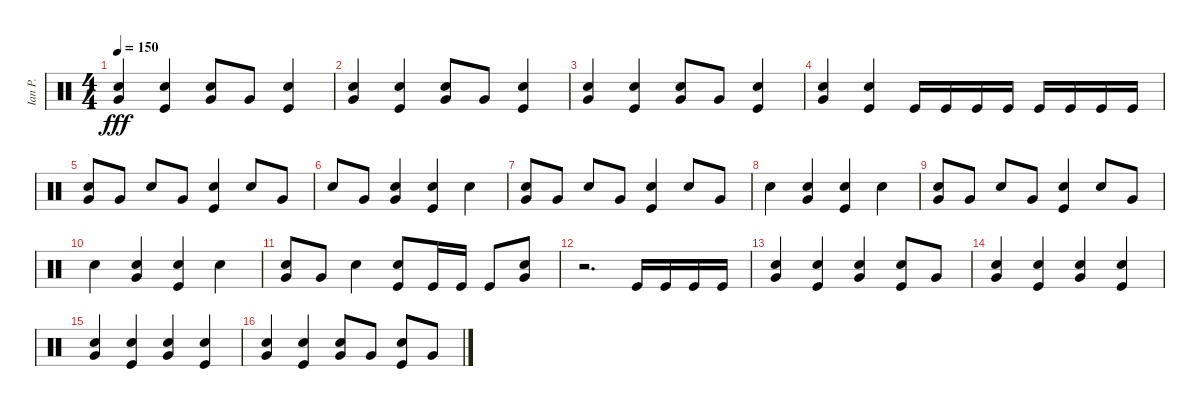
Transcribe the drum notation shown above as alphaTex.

\track ("Ian P." "Ian P.") {instrument percussion}
\staff {score}
\articulation defaults
\ts (4 4)
\tempo 150
\clef neutral
\ks c
("Very Low Tom (hit)" "Electric Snare (hit)").4{dy fff} ("Kick (hit)" "Electric Snare (hit)").4 ("Electric Snare (hit)" "Very Low Tom (hit)").8 "Very Low Tom (hit)".8 ("Kick (hit)" "Electric Snare (hit)").4 |
("Very Low Tom (hit)" "Electric Snare (hit)").4 ("Kick (hit)" "Electric Snare (hit)").4 ("Electric Snare (hit)" "Very Low Tom (hit)").8 "Very Low Tom (hit)".8 ("Kick (hit)" "Electric Snare (hit)").4 |
("Very Low Tom (hit)" "Electric Snare (hit)").4 ("Kick (hit)" "Electric Snare (hit)").4 ("Electric Snare (hit)" "Very Low Tom (hit)").8 "Very Low Tom (hit)".8 ("Kick (hit)" "Electric Snare (hit)").4 |
("Very Low Tom (hit)" "Electric Snare (hit)").4 ("Kick (hit)" "Electric Snare (hit)").4 "Kick (hit)".16 "Kick (hit)".16 "Kick (hit)".16 "Kick (hit)".16 "Kick (hit)".16 "Kick (hit)".16 "Kick (hit)".16 "Kick (hit)".16 |
("Very Low Tom (hit)" "Electric Snare (hit)").8 "Very Low Tom (hit)".8 "Electric Snare (hit)".8 "Very Low Tom (hit)".8 ("Electric Snare (hit)" "Kick (hit)").4 "Electric Snare (hit)".8 "Very Low Tom (hit)".8 |
"Electric Snare (hit)".8 "Very Low Tom (hit)".8 ("Very Low Tom (hit)" "Electric Snare (hit)").4 ("Kick (hit)" "Electric Snare (hit)").4 "Electric Snare (hit)".4 |
("Very Low Tom (hit)" "Electric Snare (hit)").8 "Very Low Tom (hit)".8 "Electric Snare (hit)".8 "Very Low Tom (hit)".8 ("Electric Snare (hit)" "Kick (hit)").4 "Electric Snare (hit)".8 "Very Low Tom (hit)".8 |
"Electric Snare (hit)".4 ("Very Low Tom (hit)" "Electric Snare (hit)").4 ("Kick (hit)" "Electric Snare (hit)").4 "Electric Snare (hit)".4 |
("Very Low Tom (hit)" "Electric Snare (hit)").8 "Very Low Tom (hit)".8 "Electric Snare (hit)".8 "Very Low Tom (hit)".8 ("Electric Snare (hit)" "Kick (hit)").4 "Electric Snare (hit)".8 "Very Low Tom (hit)".8 |
"Electric Snare (hit)".4 ("Very Low Tom (hit)" "Electric Snare (hit)").4 ("Kick (hit)" "Electric Snare (hit)").4 "Electric Snare (hit)".4 |
("Very Low Tom (hit)" "Electric Snare (hit)").8 "Very Low Tom (hit)".8 "Electric Snare (hit)".4 ("Kick (hit)" "Electric Snare (hit)").8 "Kick (hit)".16 "Kick (hit)".16 "Kick (hit)".8 ("Electric Snare (hit)" "Very Low Tom (hit)").8 |
r.2{d} "Kick (hit)".16 "Kick (hit)".16 "Kick (hit)".16 "Kick (hit)".16 |
("Very Low Tom (hit)" "Electric Snare (hit)").4 ("Kick (hit)" "Electric Snare (hit)").4 ("Very Low Tom (hit)" "Electric Snare (hit)").4 ("Kick (hit)" "Electric Snare (hit)").8 "Very Low Tom (hit)".8 |
("Very Low Tom (hit)" "Electric Snare (hit)").4 ("Kick (hit)" "Electric Snare (hit)").4 ("Very Low Tom (hit)" "Electric Snare (hit)").4 ("Kick (hit)" "Electric Snare (hit)").4 |
("Very Low Tom (hit)" "Electric Snare (hit)").4 ("Kick (hit)" "Electric Snare (hit)").4 ("Very Low Tom (hit)" "Electric Snare (hit)").4 ("Kick (hit)" "Electric Snare (hit)").4 |
("Very Low Tom (hit)" "Electric Snare (hit)").4 ("Kick (hit)" "Electric Snare (hit)").4 ("Very Low Tom (hit)" "Electric Snare (hit)").8 "Very Low Tom (hit)".8 ("Kick (hit)" "Electric Snare (hit)").8 "Very Low Tom (hit)".8
